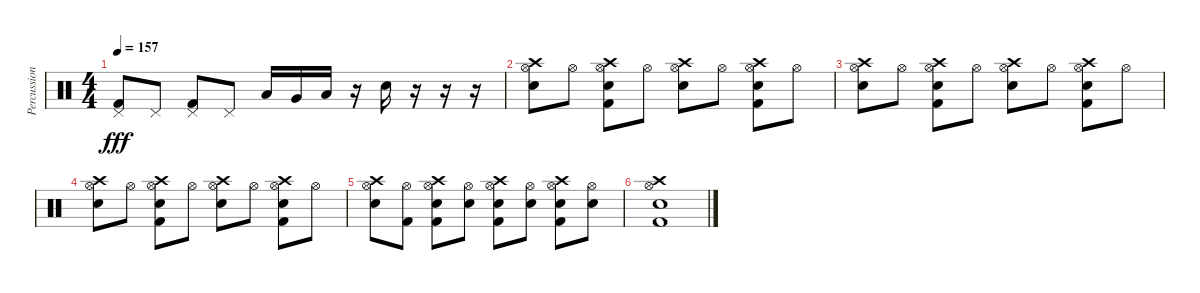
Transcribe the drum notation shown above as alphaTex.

\track ("Percussion" "Percussion") {instrument percussion}
\staff {score}
\articulation defaults
\ts (4 4)
\tempo 157
\clef neutral
\ks c
("Pedal Hi-Hat (hit)" "Kick (hit) 2").8{dy fff} "Pedal Hi-Hat (hit)".8 ("Pedal Hi-Hat (hit)" "Kick (hit) 2").8 "Pedal Hi-Hat (hit)".8 "Low Tom (hit)".16 "Very Low Tom (hit)".16 "Low Floor Tom (hit)".16 r.16 "Electric Snare (hit)".16 r.16 r.16 r.16 |
("Hi-Hat (open)" "Crash high (hit)" "Electric Snare (hit)").8 "Hi-Hat (open)".8 ("Hi-Hat (open)" "Crash high (hit)" "Electric Snare (hit)" "Kick (hit) 2").8 "Hi-Hat (open)".8 ("Hi-Hat (open)" "Crash high (hit)" "Electric Snare (hit)").8 "Hi-Hat (open)".8 ("Hi-Hat (open)" "Crash high (hit)" "Electric Snare (hit)" "Kick (hit) 2").8 "Hi-Hat (open)".8 |
("Hi-Hat (open)" "Crash high (hit)" "Electric Snare (hit)").8 "Hi-Hat (open)".8 ("Hi-Hat (open)" "Crash high (hit)" "Electric Snare (hit)" "Kick (hit) 2").8 "Hi-Hat (open)".8 ("Hi-Hat (open)" "Crash high (hit)" "Electric Snare (hit)").8 "Hi-Hat (open)".8 ("Hi-Hat (open)" "Crash high (hit)" "Electric Snare (hit)" "Kick (hit) 2").8 "Hi-Hat (open)".8 |
("Hi-Hat (open)" "Crash high (hit)" "Electric Snare (hit)").8 "Hi-Hat (open)".8 ("Hi-Hat (open)" "Crash high (hit)" "Electric Snare (hit)" "Kick (hit) 2").8 "Hi-Hat (open)".8 ("Hi-Hat (open)" "Crash high (hit)" "Electric Snare (hit)").8 "Hi-Hat (open)".8 ("Hi-Hat (open)" "Crash high (hit)" "Electric Snare (hit)" "Kick (hit) 2").8 "Hi-Hat (open)".8 |
("Hi-Hat (open)" "Crash high (hit)" "Electric Snare (hit)").8 ("Hi-Hat (open)" "Kick (hit) 2").8 ("Hi-Hat (open)" "Crash high (hit)" "Electric Snare (hit)" "Kick (hit) 2").8 ("Hi-Hat (open)" "Electric Snare (hit)").8 ("Hi-Hat (open)" "Crash high (hit)" "Electric Snare (hit)" "Kick (hit) 2").8 ("Hi-Hat (open)" "Electric Snare (hit)").8 ("Hi-Hat (open)" "Crash high (hit)" "Electric Snare (hit)" "Kick (hit) 2").8 ("Hi-Hat (open)" "Electric Snare (hit)").8 |
("Hi-Hat (open)" "Crash high (hit)" "Electric Snare (hit)" "Kick (hit) 2").1
